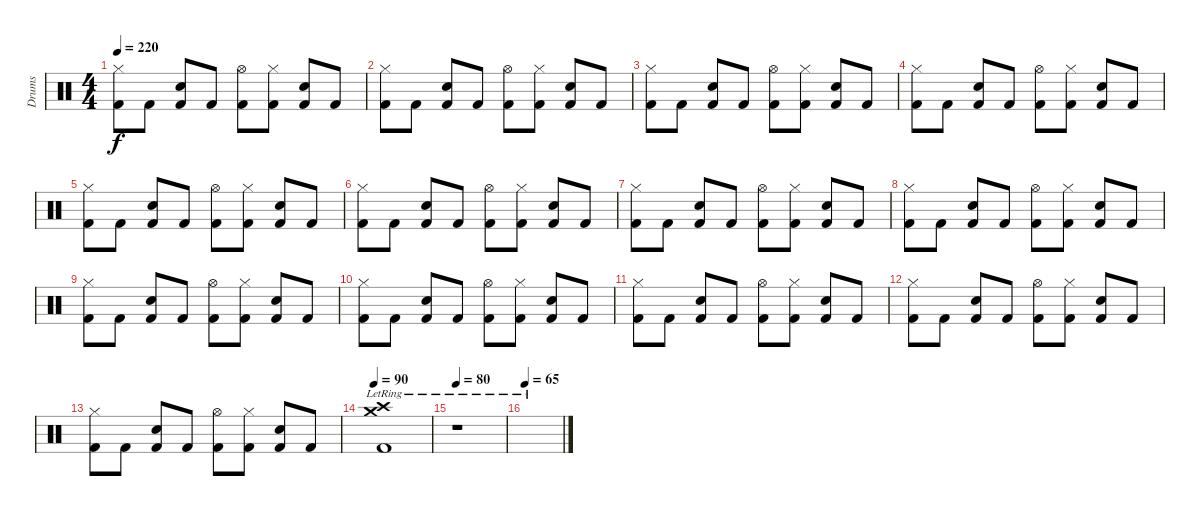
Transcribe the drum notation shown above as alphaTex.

\track ("Drums" "Drums") {instrument percussion}
\staff {score}
\articulation defaults
\ts (4 4)
\tempo 220
\clef neutral
\ks c
("Hi-Hat (closed)" "Kick (hit) 2").8{dy f} "Kick (hit) 2".8 ("Electric Snare (hit)" "Kick (hit) 2").8 "Kick (hit) 2".8 ("Hi-Hat (open)" "Kick (hit) 2").8 ("Hi-Hat (closed)" "Kick (hit) 2").8 ("Electric Snare (hit)" "Kick (hit) 2").8 "Kick (hit) 2".8 |
("Hi-Hat (closed)" "Kick (hit) 2").8 "Kick (hit) 2".8 ("Electric Snare (hit)" "Kick (hit) 2").8 "Kick (hit) 2".8 ("Hi-Hat (open)" "Kick (hit) 2").8 ("Hi-Hat (closed)" "Kick (hit) 2").8 ("Electric Snare (hit)" "Kick (hit) 2").8 "Kick (hit) 2".8 |
("Hi-Hat (closed)" "Kick (hit) 2").8 "Kick (hit) 2".8 ("Electric Snare (hit)" "Kick (hit) 2").8 "Kick (hit) 2".8 ("Hi-Hat (open)" "Kick (hit) 2").8 ("Hi-Hat (closed)" "Kick (hit) 2").8 ("Electric Snare (hit)" "Kick (hit) 2").8 "Kick (hit) 2".8 |
("Hi-Hat (closed)" "Kick (hit) 2").8 "Kick (hit) 2".8 ("Electric Snare (hit)" "Kick (hit) 2").8 "Kick (hit) 2".8 ("Hi-Hat (open)" "Kick (hit) 2").8 ("Hi-Hat (closed)" "Kick (hit) 2").8 ("Electric Snare (hit)" "Kick (hit) 2").8 "Kick (hit) 2".8 |
("Hi-Hat (closed)" "Kick (hit) 2").8 "Kick (hit) 2".8 ("Electric Snare (hit)" "Kick (hit) 2").8 "Kick (hit) 2".8 ("Hi-Hat (open)" "Kick (hit) 2").8 ("Hi-Hat (closed)" "Kick (hit) 2").8 ("Electric Snare (hit)" "Kick (hit) 2").8 "Kick (hit) 2".8 |
("Hi-Hat (closed)" "Kick (hit) 2").8 "Kick (hit) 2".8 ("Electric Snare (hit)" "Kick (hit) 2").8 "Kick (hit) 2".8 ("Hi-Hat (open)" "Kick (hit) 2").8 ("Hi-Hat (closed)" "Kick (hit) 2").8 ("Electric Snare (hit)" "Kick (hit) 2").8 "Kick (hit) 2".8 |
("Hi-Hat (closed)" "Kick (hit) 2").8 "Kick (hit) 2".8 ("Electric Snare (hit)" "Kick (hit) 2").8 "Kick (hit) 2".8 ("Hi-Hat (open)" "Kick (hit) 2").8 ("Hi-Hat (closed)" "Kick (hit) 2").8 ("Electric Snare (hit)" "Kick (hit) 2").8 "Kick (hit) 2".8 |
("Hi-Hat (closed)" "Kick (hit) 2").8 "Kick (hit) 2".8 ("Electric Snare (hit)" "Kick (hit) 2").8 "Kick (hit) 2".8 ("Hi-Hat (open)" "Kick (hit) 2").8 ("Hi-Hat (closed)" "Kick (hit) 2").8 ("Electric Snare (hit)" "Kick (hit) 2").8 "Kick (hit) 2".8 |
("Hi-Hat (closed)" "Kick (hit) 2").8 "Kick (hit) 2".8 ("Electric Snare (hit)" "Kick (hit) 2").8 "Kick (hit) 2".8 ("Hi-Hat (open)" "Kick (hit) 2").8 ("Hi-Hat (closed)" "Kick (hit) 2").8 ("Electric Snare (hit)" "Kick (hit) 2").8 "Kick (hit) 2".8 |
("Hi-Hat (closed)" "Kick (hit) 2").8 "Kick (hit) 2".8 ("Electric Snare (hit)" "Kick (hit) 2").8 "Kick (hit) 2".8 ("Hi-Hat (open)" "Kick (hit) 2").8 ("Hi-Hat (closed)" "Kick (hit) 2").8 ("Electric Snare (hit)" "Kick (hit) 2").8 "Kick (hit) 2".8 |
("Hi-Hat (closed)" "Kick (hit) 2").8 "Kick (hit) 2".8 ("Electric Snare (hit)" "Kick (hit) 2").8 "Kick (hit) 2".8 ("Hi-Hat (open)" "Kick (hit) 2").8 ("Hi-Hat (closed)" "Kick (hit) 2").8 ("Electric Snare (hit)" "Kick (hit) 2").8 "Kick (hit) 2".8 |
("Hi-Hat (closed)" "Kick (hit) 2").8 "Kick (hit) 2".8 ("Electric Snare (hit)" "Kick (hit) 2").8 "Kick (hit) 2".8 ("Hi-Hat (open)" "Kick (hit) 2").8 ("Hi-Hat (closed)" "Kick (hit) 2").8 ("Electric Snare (hit)" "Kick (hit) 2").8 "Kick (hit) 2".8 |
("Hi-Hat (closed)" "Kick (hit) 2").8 "Kick (hit) 2".8 ("Electric Snare (hit)" "Kick (hit) 2").8 "Kick (hit) 2".8 ("Hi-Hat (open)" "Kick (hit) 2").8 ("Hi-Hat (closed)" "Kick (hit) 2").8 ("Electric Snare (hit)" "Kick (hit) 2").8 "Kick (hit) 2".8 |
\tempo 90
("Kick (hit) 2" "Crash medium (hit)"{lr} "Crash high (hit)"{lr}).1 |
\tempo 80
r.1 |
\tempo 65
